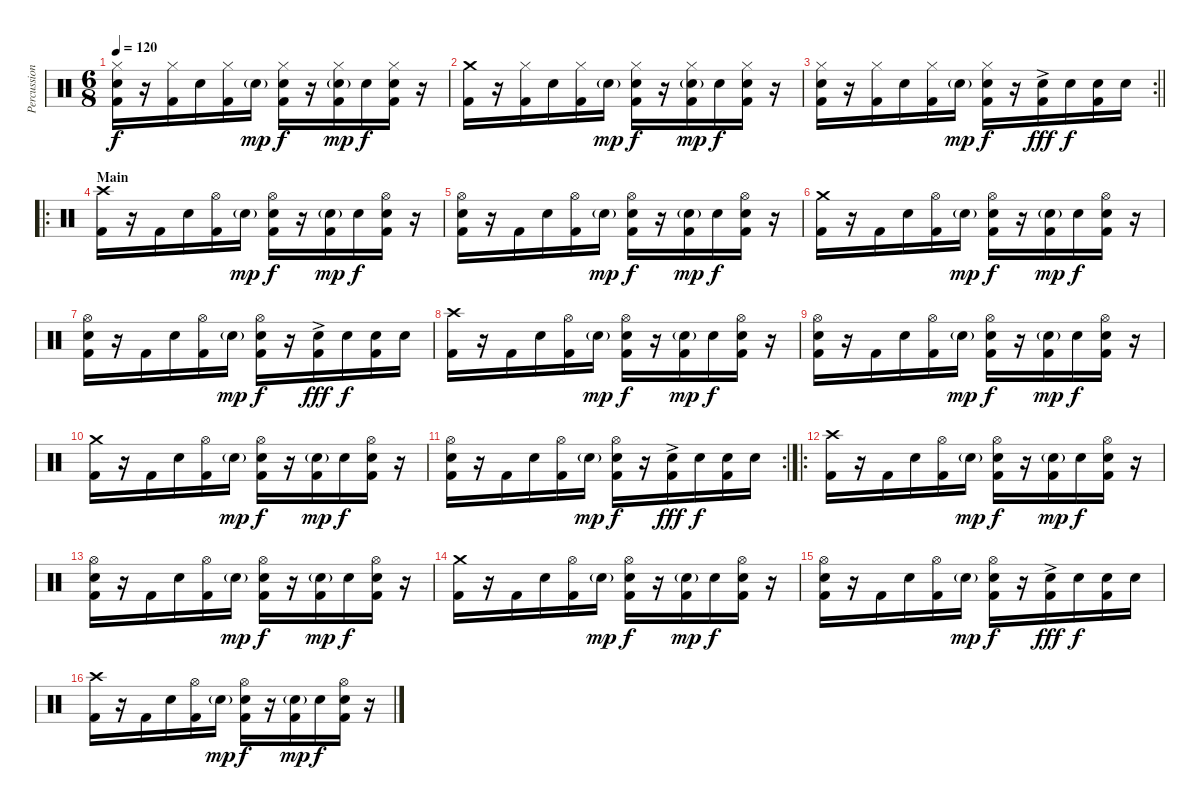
\track ("Percussion" "Percussion") {instrument percussion}
\staff {score}
\articulation defaults
\ts (6 8)
\tempo 120
\clef neutral
\ks c
("Hi-Hat (closed)" "Snare (hit) 2" "Kick (hit) 2").16{dy f} r.16 ("Hi-Hat (closed)" "Kick (hit) 2").16 "Snare (hit) 2".16 ("Hi-Hat (closed)" "Kick (hit) 2").16 "Snare (hit) 2"{g}.16{dy mp} ("Hi-Hat (closed)" "Snare (hit) 2" "Kick (hit) 2").16{dy f} r.16 ("Hi-Hat (closed)" "Snare (hit) 2"{g} "Kick (hit) 2").16{dy mp} "Snare (hit) 2".16{dy f} ("Hi-Hat (closed)" "Snare (hit) 2" "Kick (hit) 2").16 r.16 |
("Crash medium (hit)" "Kick (hit) 2").16 r.16 ("Hi-Hat (closed)" "Kick (hit) 2").16 "Snare (hit) 2".16 ("Hi-Hat (closed)" "Kick (hit) 2").16 "Snare (hit) 2"{g}.16{dy mp} ("Hi-Hat (closed)" "Snare (hit) 2" "Kick (hit) 2").16{dy f} r.16 ("Hi-Hat (closed)" "Snare (hit) 2"{g} "Kick (hit) 2").16{dy mp} "Snare (hit) 2".16{dy f} ("Hi-Hat (closed)" "Snare (hit) 2" "Kick (hit) 2").16 r.16 |
\rc 2
\barLineRight lightlight
("Hi-Hat (closed)" "Snare (hit) 2" "Kick (hit) 2").16 r.16 ("Hi-Hat (closed)" "Kick (hit) 2").16 "Snare (hit) 2".16 ("Hi-Hat (closed)" "Kick (hit) 2").16 "Snare (hit) 2"{g}.16{dy mp} ("Hi-Hat (closed)" "Snare (hit) 2" "Kick (hit) 2").16{dy f} r.16 ("Snare (hit) 2"{ac} "Kick (hit) 2").16{dy fff} "Snare (hit) 2".16{dy f} ("Snare (hit) 2" "Kick (hit) 2").16 "Snare (hit) 2".16 |
\ro
\section ("" "Main")
("Crash high (hit)" "Kick (hit) 2").16 r.16 "Kick (hit) 2".16 "Snare (hit) 2".16 ("Hi-Hat (open)" "Kick (hit) 2").16 "Snare (hit) 2"{g}.16{dy mp} ("Hi-Hat (open)" "Snare (hit) 2" "Kick (hit) 2").16{dy f} r.16 ("Snare (hit) 2"{g} "Kick (hit) 2").16{dy mp} "Snare (hit) 2".16{dy f} ("Hi-Hat (open)" "Snare (hit) 2" "Kick (hit) 2").16 r.16 |
("Hi-Hat (open)" "Snare (hit) 2" "Kick (hit) 2").16 r.16 "Kick (hit) 2".16 "Snare (hit) 2".16 ("Hi-Hat (open)" "Kick (hit) 2").16 "Snare (hit) 2"{g}.16{dy mp} ("Hi-Hat (open)" "Snare (hit) 2" "Kick (hit) 2").16{dy f} r.16 ("Snare (hit) 2"{g} "Kick (hit) 2").16{dy mp} "Snare (hit) 2".16{dy f} ("Hi-Hat (open)" "Snare (hit) 2" "Kick (hit) 2").16 r.16 |
("Crash medium (hit)" "Kick (hit) 2").16 r.16 "Kick (hit) 2".16 "Snare (hit) 2".16 ("Hi-Hat (open)" "Kick (hit) 2").16 "Snare (hit) 2"{g}.16{dy mp} ("Hi-Hat (open)" "Snare (hit) 2" "Kick (hit) 2").16{dy f} r.16 ("Snare (hit) 2"{g} "Kick (hit) 2").16{dy mp} "Snare (hit) 2".16{dy f} ("Hi-Hat (open)" "Snare (hit) 2" "Kick (hit) 2").16 r.16 |
("Hi-Hat (open)" "Snare (hit) 2" "Kick (hit) 2").16 r.16 "Kick (hit) 2".16 "Snare (hit) 2".16 ("Hi-Hat (open)" "Kick (hit) 2").16 "Snare (hit) 2"{g}.16{dy mp} ("Hi-Hat (open)" "Snare (hit) 2" "Kick (hit) 2").16{dy f} r.16 ("Snare (hit) 2"{ac} "Kick (hit) 2").16{dy fff} "Snare (hit) 2".16{dy f} ("Snare (hit) 2" "Kick (hit) 2").16 "Snare (hit) 2".16 |
("Crash high (hit)" "Kick (hit) 2").16 r.16 "Kick (hit) 2".16 "Snare (hit) 2".16 ("Hi-Hat (open)" "Kick (hit) 2").16 "Snare (hit) 2"{g}.16{dy mp} ("Hi-Hat (open)" "Snare (hit) 2" "Kick (hit) 2").16{dy f} r.16 ("Snare (hit) 2"{g} "Kick (hit) 2").16{dy mp} "Snare (hit) 2".16{dy f} ("Hi-Hat (open)" "Snare (hit) 2" "Kick (hit) 2").16 r.16 |
("Hi-Hat (open)" "Snare (hit) 2" "Kick (hit) 2").16 r.16 "Kick (hit) 2".16 "Snare (hit) 2".16 ("Hi-Hat (open)" "Kick (hit) 2").16 "Snare (hit) 2"{g}.16{dy mp} ("Hi-Hat (open)" "Snare (hit) 2" "Kick (hit) 2").16{dy f} r.16 ("Snare (hit) 2"{g} "Kick (hit) 2").16{dy mp} "Snare (hit) 2".16{dy f} ("Hi-Hat (open)" "Snare (hit) 2" "Kick (hit) 2").16 r.16 |
("Crash medium (hit)" "Kick (hit) 2").16 r.16 "Kick (hit) 2".16 "Snare (hit) 2".16 ("Hi-Hat (open)" "Kick (hit) 2").16 "Snare (hit) 2"{g}.16{dy mp} ("Hi-Hat (open)" "Snare (hit) 2" "Kick (hit) 2").16{dy f} r.16 ("Snare (hit) 2"{g} "Kick (hit) 2").16{dy mp} "Snare (hit) 2".16{dy f} ("Hi-Hat (open)" "Snare (hit) 2" "Kick (hit) 2").16 r.16 |
\rc 2
("Hi-Hat (open)" "Snare (hit) 2" "Kick (hit) 2").16 r.16 "Kick (hit) 2".16 "Snare (hit) 2".16 ("Hi-Hat (open)" "Kick (hit) 2").16 "Snare (hit) 2"{g}.16{dy mp} ("Hi-Hat (open)" "Snare (hit) 2" "Kick (hit) 2").16{dy f} r.16 ("Snare (hit) 2"{ac} "Kick (hit) 2").16{dy fff} "Snare (hit) 2".16{dy f} ("Snare (hit) 2" "Kick (hit) 2").16 "Snare (hit) 2".16 |
\ro
("Crash high (hit)" "Kick (hit) 2").16 r.16 "Kick (hit) 2".16 "Snare (hit) 2".16 ("Hi-Hat (open)" "Kick (hit) 2").16 "Snare (hit) 2"{g}.16{dy mp} ("Hi-Hat (open)" "Snare (hit) 2" "Kick (hit) 2").16{dy f} r.16 ("Snare (hit) 2"{g} "Kick (hit) 2").16{dy mp} "Snare (hit) 2".16{dy f} ("Hi-Hat (open)" "Snare (hit) 2" "Kick (hit) 2").16 r.16 |
("Hi-Hat (open)" "Snare (hit) 2" "Kick (hit) 2").16 r.16 "Kick (hit) 2".16 "Snare (hit) 2".16 ("Hi-Hat (open)" "Kick (hit) 2").16 "Snare (hit) 2"{g}.16{dy mp} ("Hi-Hat (open)" "Snare (hit) 2" "Kick (hit) 2").16{dy f} r.16 ("Snare (hit) 2"{g} "Kick (hit) 2").16{dy mp} "Snare (hit) 2".16{dy f} ("Hi-Hat (open)" "Snare (hit) 2" "Kick (hit) 2").16 r.16 |
("Crash medium (hit)" "Kick (hit) 2").16 r.16 "Kick (hit) 2".16 "Snare (hit) 2".16 ("Hi-Hat (open)" "Kick (hit) 2").16 "Snare (hit) 2"{g}.16{dy mp} ("Hi-Hat (open)" "Snare (hit) 2" "Kick (hit) 2").16{dy f} r.16 ("Snare (hit) 2"{g} "Kick (hit) 2").16{dy mp} "Snare (hit) 2".16{dy f} ("Hi-Hat (open)" "Snare (hit) 2" "Kick (hit) 2").16 r.16 |
("Hi-Hat (open)" "Snare (hit) 2" "Kick (hit) 2").16 r.16 "Kick (hit) 2".16 "Snare (hit) 2".16 ("Hi-Hat (open)" "Kick (hit) 2").16 "Snare (hit) 2"{g}.16{dy mp} ("Hi-Hat (open)" "Snare (hit) 2" "Kick (hit) 2").16{dy f} r.16 ("Snare (hit) 2"{ac} "Kick (hit) 2").16{dy fff} "Snare (hit) 2".16{dy f} ("Snare (hit) 2" "Kick (hit) 2").16 "Snare (hit) 2".16 |
("Crash high (hit)" "Kick (hit) 2").16 r.16 "Kick (hit) 2".16 "Snare (hit) 2".16 ("Hi-Hat (open)" "Kick (hit) 2").16 "Snare (hit) 2"{g}.16{dy mp} ("Hi-Hat (open)" "Snare (hit) 2" "Kick (hit) 2").16{dy f} r.16 ("Snare (hit) 2"{g} "Kick (hit) 2").16{dy mp} "Snare (hit) 2".16{dy f} ("Hi-Hat (open)" "Snare (hit) 2" "Kick (hit) 2").16 r.16
